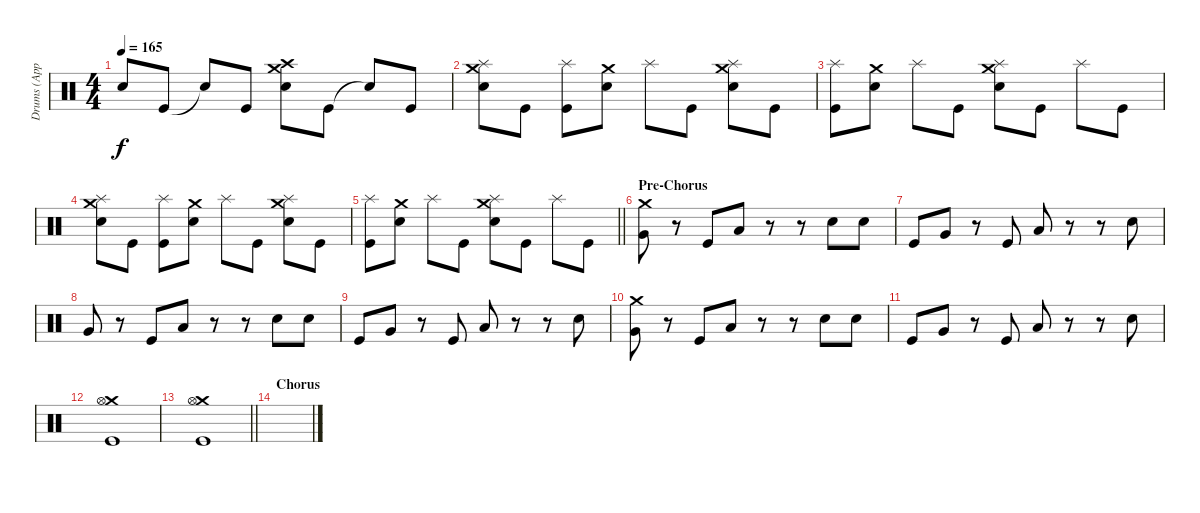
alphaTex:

\track ("Drums (Approx.)" "Drums (App") {instrument percussion}
\staff {score}
\articulation defaults
\ts (4 4)
\tempo 165
\clef neutral
\ks c "Snare (hit)"{t}.8{dy f} "Kick (hit)".8 "Snare (hit)"{t}.8 "Kick (hit)".8
("Crash medium (hit)" "Crash high (hit)" "Electric Snare (hit)").8 "Kick (hit)".8 "Snare (hit)"{t}.8 "Kick (hit)".8 |
("Crash medium (hit)" "Splash (hit)" "Electric Snare (hit)").8 "Kick (hit)".8 ("Splash (hit)" "Kick (hit)").8 ("Crash medium (hit)" "Electric Snare (hit)").8 "Splash (hit)".8 "Kick (hit)".8 ("Crash medium (hit)" "Splash (hit)" "Electric Snare (hit)").8 "Kick (hit)".8 |
("Splash (hit)" "Kick (hit)").8 ("Crash medium (hit)" "Electric Snare (hit)").8 "Splash (hit)".8 "Kick (hit)".8 ("Crash medium (hit)" "Splash (hit)" "Electric Snare (hit)").8 "Kick (hit)".8 "Splash (hit)".8 "Kick (hit)".8 |
("Crash medium (hit)" "Splash (hit)" "Electric Snare (hit)").8 "Kick (hit)".8 ("Splash (hit)" "Kick (hit)").8 ("Crash medium (hit)" "Electric Snare (hit)").8 "Splash (hit)".8 "Kick (hit)".8 ("Crash medium (hit)" "Splash (hit)" "Electric Snare (hit)").8 "Kick (hit)".8 |
\barLineRight lightlight
("Splash (hit)" "Kick (hit)").8 ("Crash medium (hit)" "Electric Snare (hit)").8 "Splash (hit)".8 "Kick (hit)".8 ("Crash medium (hit)" "Splash (hit)" "Electric Snare (hit)").8 "Kick (hit)".8 "Splash (hit)".8 "Kick (hit)".8 |
\section ("" "Pre-Chorus")
("Crash medium (hit)" "Very Low Tom (hit)").8 r.8 "Kick (hit)".8 "Low Floor Tom (hit)".8 r.8 r.8 "Electric Snare (hit)".8 "Electric Snare (hit)".8 |
"Kick (hit)".8 "Very Low Tom (hit)".8 r.8 "Kick (hit)".8 "Low Floor Tom (hit)".8 r.8 r.8 "Electric Snare (hit)".8 |
"Very Low Tom (hit)".8 r.8 "Kick (hit)".8 "Low Floor Tom (hit)".8 r.8 r.8 "Electric Snare (hit)".8 "Electric Snare (hit)".8 |
"Kick (hit)".8 "Very Low Tom (hit)".8 r.8 "Kick (hit)".8 "Low Floor Tom (hit)".8 r.8 r.8 "Electric Snare (hit)".8 |
("Crash medium (hit)" "Very Low Tom (hit)").8 r.8 "Kick (hit)".8 "Low Floor Tom (hit)".8 r.8 r.8 "Electric Snare (hit)".8 "Electric Snare (hit)".8 |
"Kick (hit)".8 "Very Low Tom (hit)".8 r.8 "Kick (hit)".8 "Low Floor Tom (hit)".8 r.8 r.8 "Electric Snare (hit)".8 |
("Crash medium (hit)" "Hi-Hat (open)" "Kick (hit)").1 |
\barLineRight lightlight
("Crash medium (hit)" "Hi-Hat (open)" "Kick (hit)").1 |
\section ("" "Chorus")
